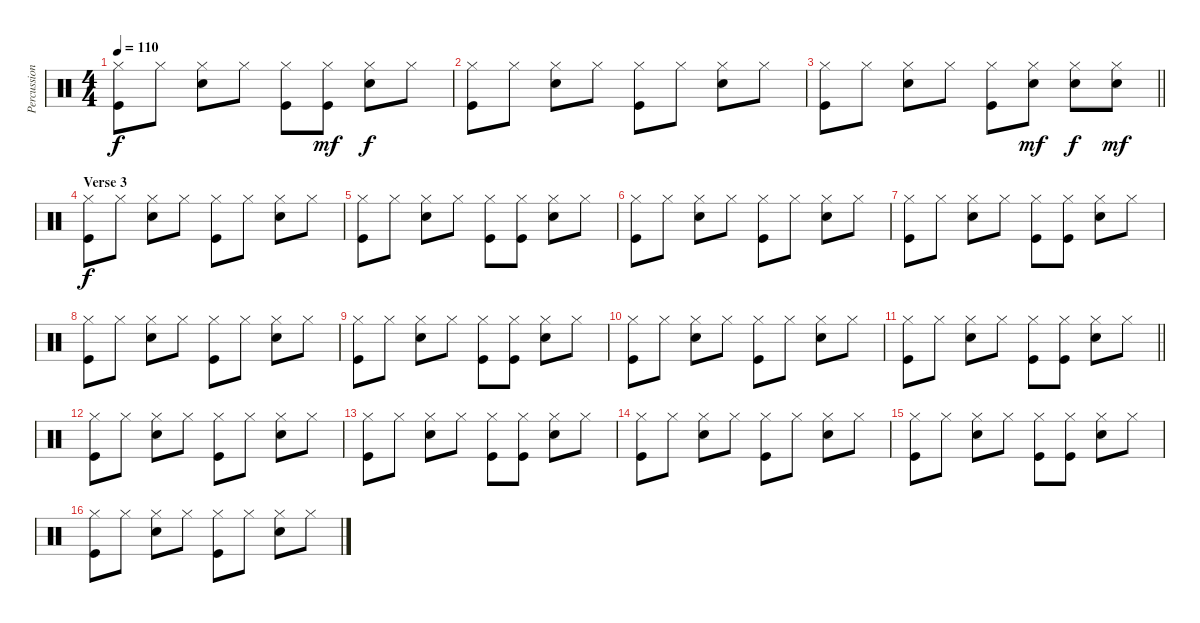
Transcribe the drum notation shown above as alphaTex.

\track ("Percussion" "Percussion") {instrument percussion}
\staff {score}
\articulation defaults
\ts (4 4)
\tempo 110
\clef neutral
\ks c
("Hi-Hat (closed)" "Kick (hit)").8{dy f} "Hi-Hat (closed)".8 ("Hi-Hat (closed)" "Snare (hit) 2").8 "Hi-Hat (closed)".8 ("Hi-Hat (closed)" "Kick (hit)").8 ("Hi-Hat (closed)" "Kick (hit)").8{dy mf} ("Hi-Hat (closed)" "Snare (hit) 2").8{dy f} "Hi-Hat (closed)".8 |
("Hi-Hat (closed)" "Kick (hit)").8 "Hi-Hat (closed)".8 ("Hi-Hat (closed)" "Snare (hit) 2").8 "Hi-Hat (closed)".8 ("Hi-Hat (closed)" "Kick (hit)").8 "Hi-Hat (closed)".8 ("Hi-Hat (closed)" "Snare (hit) 2").8 "Hi-Hat (closed)".8 |
\barLineRight lightlight
("Hi-Hat (closed)" "Kick (hit)").8 "Hi-Hat (closed)".8 ("Hi-Hat (closed)" "Snare (hit) 2").8 "Hi-Hat (closed)".8 ("Hi-Hat (closed)" "Kick (hit)").8 ("Hi-Hat (closed)" "Snare (hit) 2").8{dy mf} ("Hi-Hat (closed)" "Snare (hit) 2").8{dy f} ("Hi-Hat (closed)" "Snare (hit) 2").8{dy mf} |
\section ("" "Verse 3")
("Hi-Hat (closed)" "Kick (hit)").8{dy f} "Hi-Hat (closed)".8 ("Hi-Hat (closed)" "Snare (hit) 2").8 "Hi-Hat (closed)".8 ("Hi-Hat (closed)" "Kick (hit)").8 "Hi-Hat (closed)".8 ("Hi-Hat (closed)" "Snare (hit) 2").8 "Hi-Hat (closed)".8 |
("Hi-Hat (closed)" "Kick (hit)").8 "Hi-Hat (closed)".8 ("Hi-Hat (closed)" "Snare (hit) 2").8 "Hi-Hat (closed)".8 ("Hi-Hat (closed)" "Kick (hit)").8 ("Hi-Hat (closed)" "Kick (hit)").8 ("Hi-Hat (closed)" "Snare (hit) 2").8 "Hi-Hat (closed)".8 |
("Hi-Hat (closed)" "Kick (hit)").8 "Hi-Hat (closed)".8 ("Hi-Hat (closed)" "Snare (hit) 2").8 "Hi-Hat (closed)".8 ("Hi-Hat (closed)" "Kick (hit)").8 "Hi-Hat (closed)".8 ("Hi-Hat (closed)" "Snare (hit) 2").8 "Hi-Hat (closed)".8 |
("Hi-Hat (closed)" "Kick (hit)").8 "Hi-Hat (closed)".8 ("Hi-Hat (closed)" "Snare (hit) 2").8 "Hi-Hat (closed)".8 ("Hi-Hat (closed)" "Kick (hit)").8 ("Hi-Hat (closed)" "Kick (hit)").8 ("Hi-Hat (closed)" "Snare (hit) 2").8 "Hi-Hat (closed)".8 |
("Hi-Hat (closed)" "Kick (hit)").8 "Hi-Hat (closed)".8 ("Hi-Hat (closed)" "Snare (hit) 2").8 "Hi-Hat (closed)".8 ("Hi-Hat (closed)" "Kick (hit)").8 "Hi-Hat (closed)".8 ("Hi-Hat (closed)" "Snare (hit) 2").8 "Hi-Hat (closed)".8 |
("Hi-Hat (closed)" "Kick (hit)").8 "Hi-Hat (closed)".8 ("Hi-Hat (closed)" "Snare (hit) 2").8 "Hi-Hat (closed)".8 ("Hi-Hat (closed)" "Kick (hit)").8 ("Hi-Hat (closed)" "Kick (hit)").8 ("Hi-Hat (closed)" "Snare (hit) 2").8 "Hi-Hat (closed)".8 |
("Hi-Hat (closed)" "Kick (hit)").8 "Hi-Hat (closed)".8 ("Hi-Hat (closed)" "Snare (hit) 2").8 "Hi-Hat (closed)".8 ("Hi-Hat (closed)" "Kick (hit)").8 "Hi-Hat (closed)".8 ("Hi-Hat (closed)" "Snare (hit) 2").8 "Hi-Hat (closed)".8 |
\barLineRight lightlight
("Hi-Hat (closed)" "Kick (hit)").8 "Hi-Hat (closed)".8 ("Hi-Hat (closed)" "Snare (hit) 2").8 "Hi-Hat (closed)".8 ("Hi-Hat (closed)" "Kick (hit)").8 ("Hi-Hat (closed)" "Kick (hit)").8 ("Hi-Hat (closed)" "Snare (hit) 2").8 "Hi-Hat (closed)".8 |
("Hi-Hat (closed)" "Kick (hit)").8 "Hi-Hat (closed)".8 ("Hi-Hat (closed)" "Snare (hit) 2").8 "Hi-Hat (closed)".8 ("Hi-Hat (closed)" "Kick (hit)").8 "Hi-Hat (closed)".8 ("Hi-Hat (closed)" "Snare (hit) 2").8 "Hi-Hat (closed)".8 |
("Hi-Hat (closed)" "Kick (hit)").8 "Hi-Hat (closed)".8 ("Hi-Hat (closed)" "Snare (hit) 2").8 "Hi-Hat (closed)".8 ("Hi-Hat (closed)" "Kick (hit)").8 ("Hi-Hat (closed)" "Kick (hit)").8 ("Hi-Hat (closed)" "Snare (hit) 2").8 "Hi-Hat (closed)".8 |
("Hi-Hat (closed)" "Kick (hit)").8 "Hi-Hat (closed)".8 ("Hi-Hat (closed)" "Snare (hit) 2").8 "Hi-Hat (closed)".8 ("Hi-Hat (closed)" "Kick (hit)").8 "Hi-Hat (closed)".8 ("Hi-Hat (closed)" "Snare (hit) 2").8 "Hi-Hat (closed)".8 |
("Hi-Hat (closed)" "Kick (hit)").8 "Hi-Hat (closed)".8 ("Hi-Hat (closed)" "Snare (hit) 2").8 "Hi-Hat (closed)".8 ("Hi-Hat (closed)" "Kick (hit)").8 ("Hi-Hat (closed)" "Kick (hit)").8 ("Hi-Hat (closed)" "Snare (hit) 2").8 "Hi-Hat (closed)".8 |
("Hi-Hat (closed)" "Kick (hit)").8 "Hi-Hat (closed)".8 ("Hi-Hat (closed)" "Snare (hit) 2").8 "Hi-Hat (closed)".8 ("Hi-Hat (closed)" "Kick (hit)").8 "Hi-Hat (closed)".8 ("Hi-Hat (closed)" "Snare (hit) 2").8 "Hi-Hat (closed)".8
